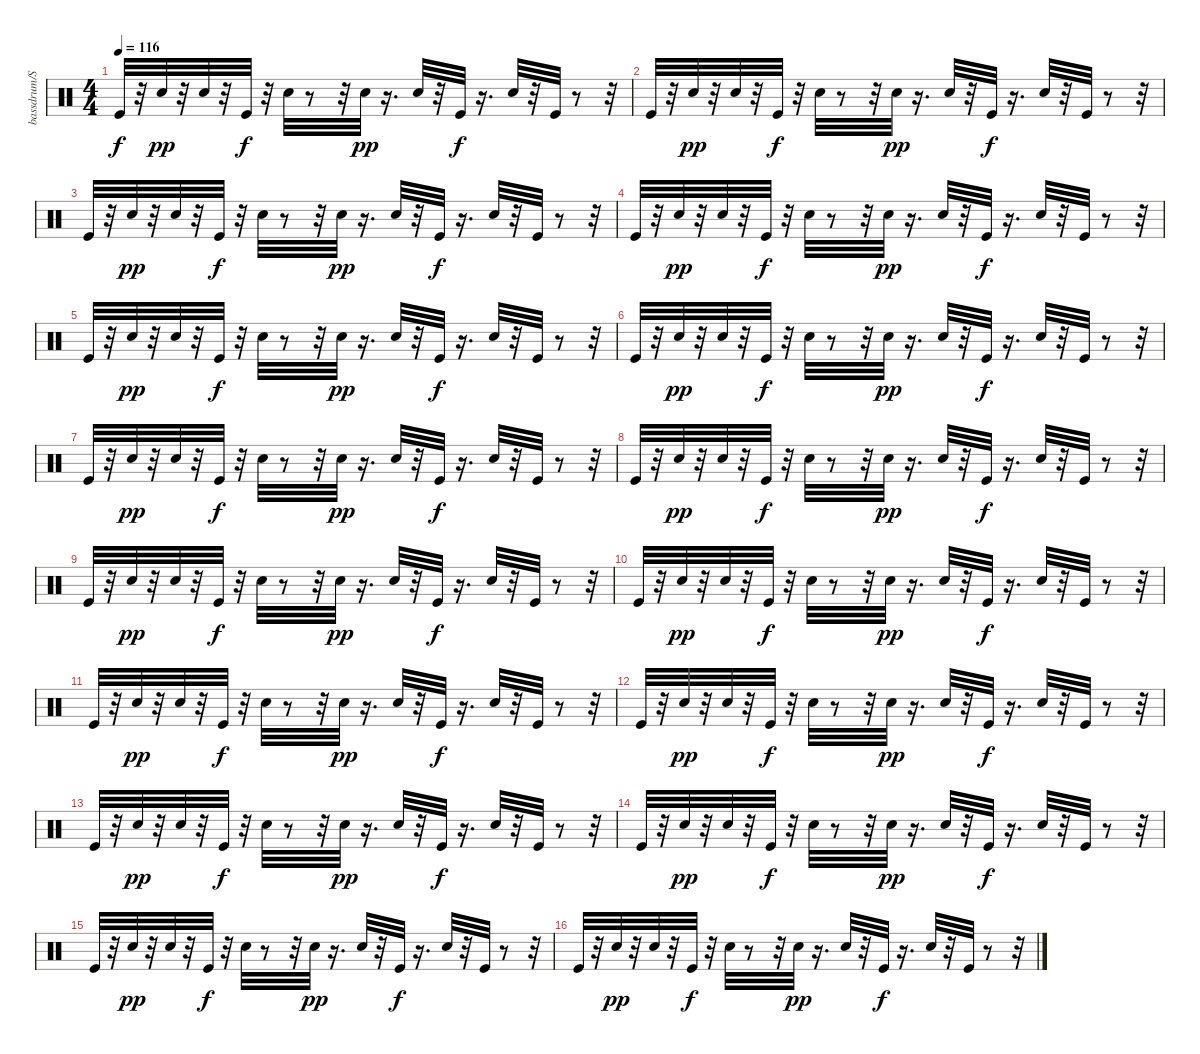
\track ("bassdrum/SD" "bassdrum/S") {instrument percussion}
\staff {score}
\articulation defaults
\ts (4 4)
\tempo 116
\clef neutral
\ks c "Kick (hit)".32{dy f}
r.32 "Snare (hit) 2".32{dy pp} r.32 "Snare (hit) 2".32 r.32 "Kick (hit)".32{dy f} r.32 "Electric Snare (hit)".32 r.8 r.32 "Snare (hit) 2".32{dy pp} r.16{d} "Snare (hit) 2".32 r.32 "Kick (hit)".32{dy f} r.16{d} "Electric Snare (hit)".32 r.32 "Kick (hit)".32 r.8 r.32 |
"Kick (hit)".32 r.32 "Snare (hit) 2".32{dy pp} r.32 "Snare (hit) 2".32 r.32 "Kick (hit)".32{dy f} r.32 "Electric Snare (hit)".32 r.8 r.32 "Snare (hit) 2".32{dy pp} r.16{d} "Snare (hit) 2".32 r.32 "Kick (hit)".32{dy f} r.16{d} "Electric Snare (hit)".32 r.32 "Kick (hit)".32 r.8 r.32 |
"Kick (hit)".32 r.32 "Snare (hit) 2".32{dy pp} r.32 "Snare (hit) 2".32 r.32 "Kick (hit)".32{dy f} r.32 "Electric Snare (hit)".32 r.8 r.32 "Snare (hit) 2".32{dy pp} r.16{d} "Snare (hit) 2".32 r.32 "Kick (hit)".32{dy f} r.16{d} "Electric Snare (hit)".32 r.32 "Kick (hit)".32 r.8 r.32 |
"Kick (hit)".32 r.32 "Snare (hit) 2".32{dy pp} r.32 "Snare (hit) 2".32 r.32 "Kick (hit)".32{dy f} r.32 "Electric Snare (hit)".32 r.8 r.32 "Snare (hit) 2".32{dy pp} r.16{d} "Snare (hit) 2".32 r.32 "Kick (hit)".32{dy f} r.16{d} "Electric Snare (hit)".32 r.32 "Kick (hit)".32 r.8 r.32 |
"Kick (hit)".32 r.32 "Snare (hit) 2".32{dy pp} r.32 "Snare (hit) 2".32 r.32 "Kick (hit)".32{dy f} r.32 "Electric Snare (hit)".32 r.8 r.32 "Snare (hit) 2".32{dy pp} r.16{d} "Snare (hit) 2".32 r.32 "Kick (hit)".32{dy f} r.16{d} "Electric Snare (hit)".32 r.32 "Kick (hit)".32 r.8 r.32 |
"Kick (hit)".32 r.32 "Snare (hit) 2".32{dy pp} r.32 "Snare (hit) 2".32 r.32 "Kick (hit)".32{dy f} r.32 "Electric Snare (hit)".32 r.8 r.32 "Snare (hit) 2".32{dy pp} r.16{d} "Snare (hit) 2".32 r.32 "Kick (hit)".32{dy f} r.16{d} "Electric Snare (hit)".32 r.32 "Kick (hit)".32 r.8 r.32 |
"Kick (hit)".32 r.32 "Snare (hit) 2".32{dy pp} r.32 "Snare (hit) 2".32 r.32 "Kick (hit)".32{dy f} r.32 "Electric Snare (hit)".32 r.8 r.32 "Snare (hit) 2".32{dy pp} r.16{d} "Snare (hit) 2".32 r.32 "Kick (hit)".32{dy f} r.16{d} "Electric Snare (hit)".32 r.32 "Kick (hit)".32 r.8 r.32 |
"Kick (hit)".32 r.32 "Snare (hit) 2".32{dy pp} r.32 "Snare (hit) 2".32 r.32 "Kick (hit)".32{dy f} r.32 "Electric Snare (hit)".32 r.8 r.32 "Snare (hit) 2".32{dy pp} r.16{d} "Snare (hit) 2".32 r.32 "Kick (hit)".32{dy f} r.16{d} "Electric Snare (hit)".32 r.32 "Kick (hit)".32 r.8 r.32 |
"Kick (hit)".32 r.32 "Snare (hit) 2".32{dy pp} r.32 "Snare (hit) 2".32 r.32 "Kick (hit)".32{dy f} r.32 "Electric Snare (hit)".32 r.8 r.32 "Snare (hit) 2".32{dy pp} r.16{d} "Snare (hit) 2".32 r.32 "Kick (hit)".32{dy f} r.16{d} "Electric Snare (hit)".32 r.32 "Kick (hit)".32 r.8 r.32 |
"Kick (hit)".32 r.32 "Snare (hit) 2".32{dy pp} r.32 "Snare (hit) 2".32 r.32 "Kick (hit)".32{dy f} r.32 "Electric Snare (hit)".32 r.8 r.32 "Snare (hit) 2".32{dy pp} r.16{d} "Snare (hit) 2".32 r.32 "Kick (hit)".32{dy f} r.16{d} "Electric Snare (hit)".32 r.32 "Kick (hit)".32 r.8 r.32 |
"Kick (hit)".32 r.32 "Snare (hit) 2".32{dy pp} r.32 "Snare (hit) 2".32 r.32 "Kick (hit)".32{dy f} r.32 "Electric Snare (hit)".32 r.8 r.32 "Snare (hit) 2".32{dy pp} r.16{d} "Snare (hit) 2".32 r.32 "Kick (hit)".32{dy f} r.16{d} "Electric Snare (hit)".32 r.32 "Kick (hit)".32 r.8 r.32 |
"Kick (hit)".32 r.32 "Snare (hit) 2".32{dy pp} r.32 "Snare (hit) 2".32 r.32 "Kick (hit)".32{dy f} r.32 "Electric Snare (hit)".32 r.8 r.32 "Snare (hit) 2".32{dy pp} r.16{d} "Snare (hit) 2".32 r.32 "Kick (hit)".32{dy f} r.16{d} "Electric Snare (hit)".32 r.32 "Kick (hit)".32 r.8 r.32 |
"Kick (hit)".32 r.32 "Snare (hit) 2".32{dy pp} r.32 "Snare (hit) 2".32 r.32 "Kick (hit)".32{dy f} r.32 "Electric Snare (hit)".32 r.8 r.32 "Snare (hit) 2".32{dy pp} r.16{d} "Snare (hit) 2".32 r.32 "Kick (hit)".32{dy f} r.16{d} "Electric Snare (hit)".32 r.32 "Kick (hit)".32 r.8 r.32 |
"Kick (hit)".32 r.32 "Snare (hit) 2".32{dy pp} r.32 "Snare (hit) 2".32 r.32 "Kick (hit)".32{dy f} r.32 "Electric Snare (hit)".32 r.8 r.32 "Snare (hit) 2".32{dy pp} r.16{d} "Snare (hit) 2".32 r.32 "Kick (hit)".32{dy f} r.16{d} "Electric Snare (hit)".32 r.32 "Kick (hit)".32 r.8 r.32 |
"Kick (hit)".32 r.32 "Snare (hit) 2".32{dy pp} r.32 "Snare (hit) 2".32 r.32 "Kick (hit)".32{dy f} r.32 "Electric Snare (hit)".32 r.8 r.32 "Snare (hit) 2".32{dy pp} r.16{d} "Snare (hit) 2".32 r.32 "Kick (hit)".32{dy f} r.16{d} "Electric Snare (hit)".32 r.32 "Kick (hit)".32 r.8 r.32 |
"Kick (hit)".32 r.32 "Snare (hit) 2".32{dy pp} r.32 "Snare (hit) 2".32 r.32 "Kick (hit)".32{dy f} r.32 "Electric Snare (hit)".32 r.8 r.32 "Snare (hit) 2".32{dy pp} r.16{d} "Snare (hit) 2".32 r.32 "Kick (hit)".32{dy f} r.16{d} "Electric Snare (hit)".32 r.32 "Kick (hit)".32 r.8 r.32
